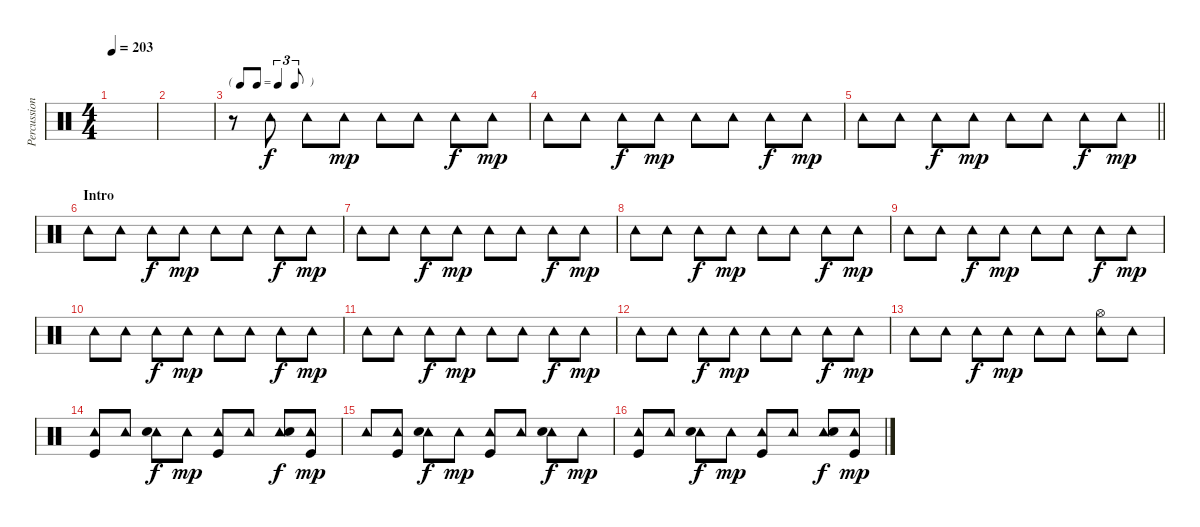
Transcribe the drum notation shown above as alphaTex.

\track ("Percussion" "Percussion") {instrument percussion}
\staff {score}
\articulation defaults
\ts (4 4)
\tempo 203
\clef neutral
\ks c
|
|
\tf triplet8th
r.8 "Tambourine (hit)".8 "Tambourine (hit)".8{dy f} "Tambourine (hit)".8{dy mp} "Tambourine (hit)".8 "Tambourine (hit)".8 "Tambourine (hit)".8{dy f} "Tambourine (hit)".8{dy mp} |
"Tambourine (hit)".8 "Tambourine (hit)".8 "Tambourine (hit)".8{dy f} "Tambourine (hit)".8{dy mp} "Tambourine (hit)".8 "Tambourine (hit)".8 "Tambourine (hit)".8{dy f} "Tambourine (hit)".8{dy mp} |
\barLineRight lightlight "Tambourine (hit)".8 "Tambourine (hit)".8 "Tambourine (hit)".8{dy f} "Tambourine (hit)".8{dy mp} "Tambourine (hit)".8 "Tambourine (hit)".8 "Tambourine (hit)".8{dy f} "Tambourine (hit)".8{dy mp}
|
\section ("" "Intro")
"Tambourine (hit)".8 "Tambourine (hit)".8 "Tambourine (hit)".8{dy f} "Tambourine (hit)".8{dy mp} "Tambourine (hit)".8 "Tambourine (hit)".8 "Tambourine (hit)".8{dy f} "Tambourine (hit)".8{dy mp} |
"Tambourine (hit)".8 "Tambourine (hit)".8 "Tambourine (hit)".8{dy f} "Tambourine (hit)".8{dy mp} "Tambourine (hit)".8 "Tambourine (hit)".8 "Tambourine (hit)".8{dy f} "Tambourine (hit)".8{dy mp} |
"Tambourine (hit)".8 "Tambourine (hit)".8 "Tambourine (hit)".8{dy f} "Tambourine (hit)".8{dy mp} "Tambourine (hit)".8 "Tambourine (hit)".8 "Tambourine (hit)".8{dy f} "Tambourine (hit)".8{dy mp} |
"Tambourine (hit)".8 "Tambourine (hit)".8 "Tambourine (hit)".8{dy f} "Tambourine (hit)".8{dy mp} "Tambourine (hit)".8 "Tambourine (hit)".8 "Tambourine (hit)".8{dy f} "Tambourine (hit)".8{dy mp} |
"Tambourine (hit)".8 "Tambourine (hit)".8 "Tambourine (hit)".8{dy f} "Tambourine (hit)".8{dy mp} "Tambourine (hit)".8 "Tambourine (hit)".8 "Tambourine (hit)".8{dy f} "Tambourine (hit)".8{dy mp} |
"Tambourine (hit)".8 "Tambourine (hit)".8 "Tambourine (hit)".8{dy f} "Tambourine (hit)".8{dy mp} "Tambourine (hit)".8 "Tambourine (hit)".8 "Tambourine (hit)".8{dy f} "Tambourine (hit)".8{dy mp} |
"Tambourine (hit)".8 "Tambourine (hit)".8 "Tambourine (hit)".8{dy f} "Tambourine (hit)".8{dy mp} "Tambourine (hit)".8 "Tambourine (hit)".8 "Tambourine (hit)".8{dy f} "Tambourine (hit)".8{dy mp} |
"Tambourine (hit)".8 "Tambourine (hit)".8 "Tambourine (hit)".8{dy f} "Tambourine (hit)".8{dy mp} "Tambourine (hit)".8 "Tambourine (hit)".8 ("Tambourine (hit)" "Hi-Hat (open)").8 "Tambourine (hit)".8 |
("Tambourine (hit)" "Kick (hit)").8 "Tambourine (hit)".8 ("Tambourine (hit)" "Snare (hit) 2").8{dy f} "Tambourine (hit)".8{dy mp} ("Tambourine (hit)" "Kick (hit)").8 "Tambourine (hit)".8 ("Tambourine (hit)" "Snare (hit) 2").8{dy f} ("Tambourine (hit)" "Kick (hit)").8{dy mp} |
"Tambourine (hit)".8 ("Tambourine (hit)" "Kick (hit)").8 ("Tambourine (hit)" "Snare (hit) 2").8{dy f} "Tambourine (hit)".8{dy mp} ("Tambourine (hit)" "Kick (hit)").8 "Tambourine (hit)".8 ("Tambourine (hit)" "Snare (hit) 2").8{dy f} "Tambourine (hit)".8{dy mp} |
("Tambourine (hit)" "Kick (hit)").8 "Tambourine (hit)".8 ("Tambourine (hit)" "Snare (hit) 2").8{dy f} "Tambourine (hit)".8{dy mp} ("Tambourine (hit)" "Kick (hit)").8 "Tambourine (hit)".8 ("Tambourine (hit)" "Snare (hit) 2").8{dy f} ("Tambourine (hit)" "Kick (hit)").8{dy mp}
